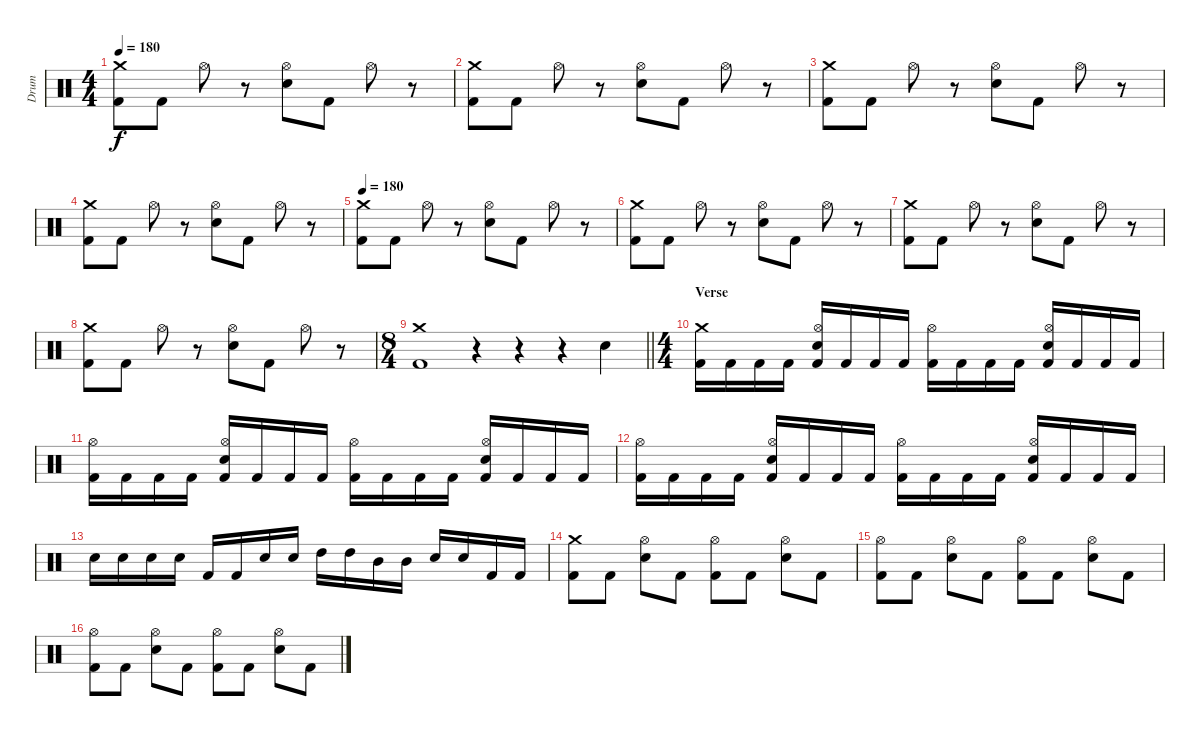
\track ("Drum" "Drum") {instrument percussion}
\staff {score}
\articulation defaults
\ts (4 4)
\tempo 180
\clef neutral
\ks c
("Crash medium (hit)" "Kick (hit) 2").8{dy f} "Kick (hit) 2".8 "Hi-Hat (open)".8 r.8 ("Hi-Hat (open)" "Electric Snare (hit)").8 "Kick (hit) 2".8 "Hi-Hat (open)".8 r.8 |
("Crash medium (hit)" "Kick (hit) 2").8 "Kick (hit) 2".8 "Hi-Hat (open)".8 r.8 ("Hi-Hat (open)" "Electric Snare (hit)").8 "Kick (hit) 2".8 "Hi-Hat (open)".8 r.8 |
("Crash medium (hit)" "Kick (hit) 2").8 "Kick (hit) 2".8 "Hi-Hat (open)".8 r.8 ("Hi-Hat (open)" "Electric Snare (hit)").8 "Kick (hit) 2".8 "Hi-Hat (open)".8 r.8 |
("Crash medium (hit)" "Kick (hit) 2").8 "Kick (hit) 2".8 "Hi-Hat (open)".8 r.8 ("Hi-Hat (open)" "Electric Snare (hit)").8 "Kick (hit) 2".8 "Hi-Hat (open)".8 r.8 |
\tempo 180
("Crash medium (hit)" "Kick (hit) 2").8 "Kick (hit) 2".8 "Hi-Hat (open)".8 r.8 ("Hi-Hat (open)" "Electric Snare (hit)").8 "Kick (hit) 2".8 "Hi-Hat (open)".8 r.8 |
("Crash medium (hit)" "Kick (hit) 2").8 "Kick (hit) 2".8 "Hi-Hat (open)".8 r.8 ("Hi-Hat (open)" "Electric Snare (hit)").8 "Kick (hit) 2".8 "Hi-Hat (open)".8 r.8 |
("Crash medium (hit)" "Kick (hit) 2").8 "Kick (hit) 2".8 "Hi-Hat (open)".8 r.8 ("Hi-Hat (open)" "Electric Snare (hit)").8 "Kick (hit) 2".8 "Hi-Hat (open)".8 r.8 |
("Crash medium (hit)" "Kick (hit) 2").8 "Kick (hit) 2".8 "Hi-Hat (open)".8 r.8 ("Hi-Hat (open)" "Electric Snare (hit)").8 "Kick (hit) 2".8 "Hi-Hat (open)".8 r.8 |
\ts (8 4)
\barLineRight lightlight
("Crash medium (hit)" "Kick (hit) 2").1 r.4 r.4 r.4 "Electric Snare (hit)".4 |
\ts (4 4)
\section ("" "Verse")
("Crash medium (hit)" "Kick (hit) 2").16 "Kick (hit) 2".16 "Kick (hit) 2".16 "Kick (hit) 2".16 ("Hi-Hat (open)" "Electric Snare (hit)" "Kick (hit) 2").16 "Kick (hit) 2".16 "Kick (hit) 2".16 "Kick (hit) 2".16 ("Hi-Hat (open)" "Kick (hit) 2").16 "Kick (hit) 2".16 "Kick (hit) 2".16 "Kick (hit) 2".16 ("Hi-Hat (open)" "Electric Snare (hit)" "Kick (hit) 2").16 "Kick (hit) 2".16 "Kick (hit) 2".16 "Kick (hit) 2".16 |
("Hi-Hat (open)" "Kick (hit) 2").16 "Kick (hit) 2".16 "Kick (hit) 2".16 "Kick (hit) 2".16 ("Hi-Hat (open)" "Electric Snare (hit)" "Kick (hit) 2").16 "Kick (hit) 2".16 "Kick (hit) 2".16 "Kick (hit) 2".16 ("Hi-Hat (open)" "Kick (hit) 2").16 "Kick (hit) 2".16 "Kick (hit) 2".16 "Kick (hit) 2".16 ("Hi-Hat (open)" "Electric Snare (hit)" "Kick (hit) 2").16 "Kick (hit) 2".16 "Kick (hit) 2".16 "Kick (hit) 2".16 |
("Hi-Hat (open)" "Kick (hit) 2").16 "Kick (hit) 2".16 "Kick (hit) 2".16 "Kick (hit) 2".16 ("Hi-Hat (open)" "Electric Snare (hit)" "Kick (hit) 2").16 "Kick (hit) 2".16 "Kick (hit) 2".16 "Kick (hit) 2".16 ("Hi-Hat (open)" "Kick (hit) 2").16 "Kick (hit) 2".16 "Kick (hit) 2".16 "Kick (hit) 2".16 ("Hi-Hat (open)" "Electric Snare (hit)" "Kick (hit) 2").16 "Kick (hit) 2".16 "Kick (hit) 2".16 "Kick (hit) 2".16 |
"Electric Snare (hit)".16 "Electric Snare (hit)".16 "Electric Snare (hit)".16 "Electric Snare (hit)".16 "Kick (hit) 2".16 "Kick (hit) 2".16 "Electric Snare (hit)".16 "Electric Snare (hit)".16 "High Tom (hit)".16 "High Tom (hit)".16 "Mid Tom (hit)".16 "Mid Tom (hit)".16 "Electric Snare (hit)".16 "Electric Snare (hit)".16 "Kick (hit) 2".16 "Kick (hit) 2".16 |
("Crash medium (hit)" "Kick (hit) 2").8 "Kick (hit) 2".8 ("Hi-Hat (open)" "Electric Snare (hit)").8 "Kick (hit) 2".8 ("Hi-Hat (open)" "Kick (hit) 2").8 "Kick (hit) 2".8 ("Hi-Hat (open)" "Electric Snare (hit)").8 "Kick (hit) 2".8 |
("Hi-Hat (open)" "Kick (hit) 2").8 "Kick (hit) 2".8 ("Hi-Hat (open)" "Electric Snare (hit)").8 "Kick (hit) 2".8 ("Hi-Hat (open)" "Kick (hit) 2").8 "Kick (hit) 2".8 ("Hi-Hat (open)" "Electric Snare (hit)").8 "Kick (hit) 2".8 |
("Hi-Hat (open)" "Kick (hit) 2").8 "Kick (hit) 2".8 ("Hi-Hat (open)" "Electric Snare (hit)").8 "Kick (hit) 2".8 ("Hi-Hat (open)" "Kick (hit) 2").8 "Kick (hit) 2".8 ("Hi-Hat (open)" "Electric Snare (hit)").8 "Kick (hit) 2".8
